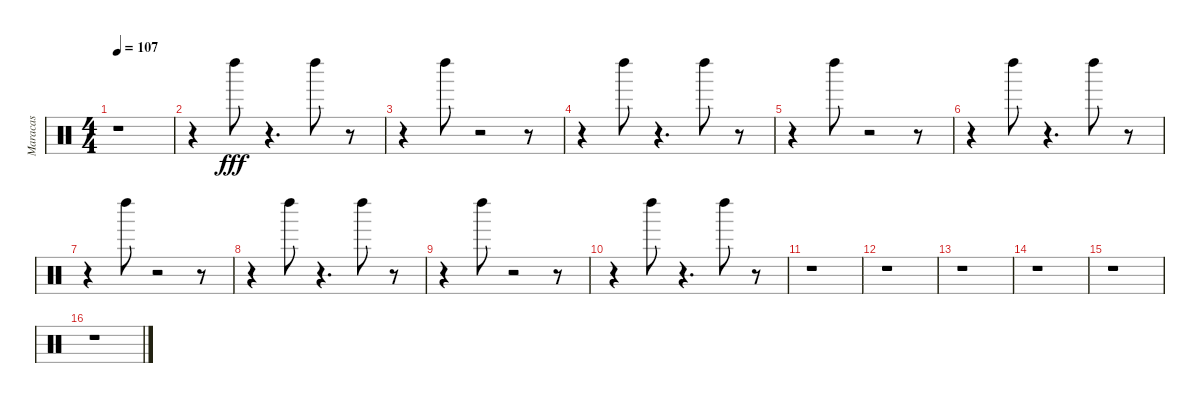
\track ("Maracas" "Maracas") {instrument percussion}
\staff {score}
\articulation defaults
\ts (4 4)
\tempo 107
\clef neutral
\ks c
r.1{dy fff} |
r.4 "Left Maraca (hit)".8 r.4{d} "Left Maraca (hit)".8 r.8 |
r.4 "Left Maraca (hit)".8 r.2 r.8 |
r.4 "Left Maraca (hit)".8 r.4{d} "Left Maraca (hit)".8 r.8 |
r.4 "Left Maraca (hit)".8 r.2 r.8 |
r.4 "Left Maraca (hit)".8 r.4{d} "Left Maraca (hit)".8 r.8 |
r.4 "Left Maraca (hit)".8 r.2 r.8 |
r.4 "Left Maraca (hit)".8 r.4{d} "Left Maraca (hit)".8 r.8 |
r.4 "Left Maraca (hit)".8 r.2 r.8 |
r.4 "Left Maraca (hit)".8 r.4{d} "Left Maraca (hit)".8 r.8 |
r.1 |
r.1 |
r.1 |
r.1 |
r.1 |
r.1
